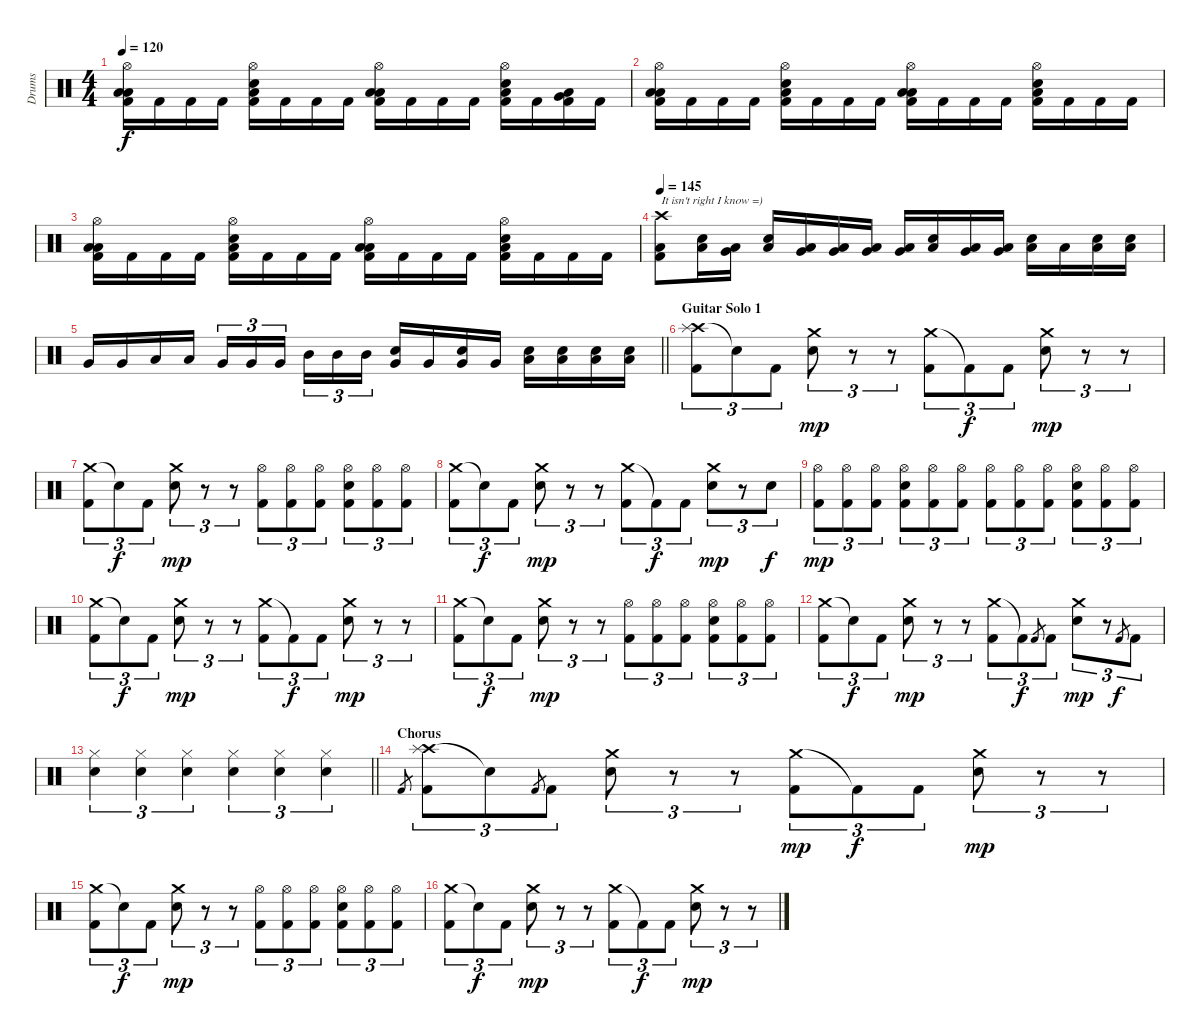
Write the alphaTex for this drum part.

\track ("Drums" "Drums") {instrument percussion}
\staff {score}
\articulation defaults
\ts (4 4)
\tempo 120
\clef neutral
\ks c
("Hi-Hat (open)" "Low Floor Tom (hit)" "Low Tom (hit)" "Kick (hit) 2").16{dy f} "Kick (hit) 2".16 "Kick (hit) 2".16 "Kick (hit) 2".16 ("Hi-Hat (open)" "Snare (hit) 2" "Low Floor Tom (hit)" "Kick (hit) 2").16 "Kick (hit) 2".16 "Kick (hit) 2".16 "Kick (hit) 2".16 ("Hi-Hat (open)" "Low Floor Tom (hit)" "Low Tom (hit)" "Kick (hit) 2").16 "Kick (hit) 2".16 "Kick (hit) 2".16 "Kick (hit) 2".16 ("Hi-Hat (open)" "Snare (hit) 2" "Low Floor Tom (hit)" "Kick (hit) 2").16 "Kick (hit) 2".16 ("Low Floor Tom (hit)" "Very Low Tom (hit)" "Kick (hit) 2").16 "Kick (hit) 2".16 |
("Hi-Hat (open)" "Low Floor Tom (hit)" "Low Tom (hit)" "Kick (hit) 2").16 "Kick (hit) 2".16 "Kick (hit) 2".16 "Kick (hit) 2".16 ("Hi-Hat (open)" "Snare (hit) 2" "Low Floor Tom (hit)" "Kick (hit) 2").16 "Kick (hit) 2".16 "Kick (hit) 2".16 "Kick (hit) 2".16 ("Hi-Hat (open)" "Low Floor Tom (hit)" "Low Tom (hit)" "Kick (hit) 2").16 "Kick (hit) 2".16 "Kick (hit) 2".16 "Kick (hit) 2".16 ("Hi-Hat (open)" "Snare (hit) 2" "Low Floor Tom (hit)" "Kick (hit) 2").16 "Kick (hit) 2".16 "Kick (hit) 2".16 "Kick (hit) 2".16 |
("Hi-Hat (open)" "Low Floor Tom (hit)" "Low Tom (hit)" "Kick (hit) 2").16 "Kick (hit) 2".16 "Kick (hit) 2".16 "Kick (hit) 2".16 ("Hi-Hat (open)" "Snare (hit) 2" "Low Floor Tom (hit)" "Kick (hit) 2").16 "Kick (hit) 2".16 "Kick (hit) 2".16 "Kick (hit) 2".16 ("Hi-Hat (open)" "Low Floor Tom (hit)" "Low Tom (hit)" "Kick (hit) 2").16 "Kick (hit) 2".16 "Kick (hit) 2".16 "Kick (hit) 2".16 ("Hi-Hat (open)" "Snare (hit) 2" "Low Floor Tom (hit)" "Kick (hit) 2").16 "Kick (hit) 2".16 "Kick (hit) 2".16 "Kick (hit) 2".16 |
\tempo 145
("Crash high (hit)" "Low Floor Tom (hit)" "Kick (hit) 2").8{txt "It isn't right I know =)"} ("Snare (hit) 2" "Low Floor Tom (hit)").16 ("Low Floor Tom (hit)" "Very Low Tom (hit)").16 ("Snare (hit) 2" "Low Floor Tom (hit)").16 ("Low Floor Tom (hit)" "Very Low Tom (hit)").16 ("Low Floor Tom (hit)" "Very Low Tom (hit)").16 ("Low Floor Tom (hit)" "Very Low Tom (hit)").16 ("Low Floor Tom (hit)" "Very Low Tom (hit)").16 ("Snare (hit) 2" "Low Floor Tom (hit)").16 ("Low Floor Tom (hit)" "Very Low Tom (hit)").16 ("Low Floor Tom (hit)" "Very Low Tom (hit)").16 ("Snare (hit) 2" "Low Floor Tom (hit)").16 "Low Floor Tom (hit)".16 ("Snare (hit) 2" "Low Floor Tom (hit)").16 ("Snare (hit) 2" "Low Floor Tom (hit)").16 |
\barLineRight lightlight "Very Low Tom (hit)".16 "Very Low Tom (hit)".16 "Low Tom (hit)".16 "Low Tom (hit)".16 "Very Low Tom (hit)".16{tu (3 2)} "Very Low Tom (hit)".16{tu (3 2)} "Very Low Tom (hit)".16{tu (3 2) beam splitsecondary} "Mid Tom (hit)".16{tu (3 2)} "Mid Tom (hit)".16{tu (3 2)} "Mid Tom (hit)".16{tu (3 2)}
("Snare (hit) 2" "Very Low Tom (hit)").16 "Very Low Tom (hit)".16 ("Snare (hit) 2" "Very Low Tom (hit)").16 "Very Low Tom (hit)".16 ("Snare (hit) 2" "Low Tom (hit)").16 ("Snare (hit) 2" "Low Tom (hit)").16 ("Snare (hit) 2" "Low Floor Tom (hit)").16 ("Snare (hit) 2" "Low Floor Tom (hit)").16 |
\section ("" "Guitar Solo 1")
("Crash high (hit)" "Splash (hit)" "Kick (hit) 2").8{tu (3 2)} "Snare (hit)"{t}.8{tu (3 2)} "Kick (hit) 2".8{tu (3 2)} ("Crash medium (hit)" "Snare (hit) 2").8{tu (3 2) dy mp} r.8{tu (3 2)} r.8{tu (3 2)} ("Crash medium (hit)" "Kick (hit) 2").8{tu (3 2)} "Kick (hit) 2"{t}.8{tu (3 2) dy f} "Kick (hit) 2".8{tu (3 2)} ("Crash medium (hit)" "Snare (hit) 2").8{tu (3 2) dy mp} r.8{tu (3 2)} r.8{tu (3 2)} |
("Crash medium (hit)" "Kick (hit) 2").8{tu (3 2)} "Snare (hit)"{t}.8{tu (3 2) dy f} "Kick (hit) 2".8{tu (3 2)} ("Crash medium (hit)" "Snare (hit) 2").8{tu (3 2) dy mp} r.8{tu (3 2)} r.8{tu (3 2)} ("Hi-Hat (open)" "Kick (hit) 2").8{tu (3 2)} ("Hi-Hat (open)" "Kick (hit) 2").8{tu (3 2)} ("Hi-Hat (open)" "Kick (hit) 2").8{tu (3 2)} ("Hi-Hat (open)" "Snare (hit) 2" "Kick (hit) 2").8{tu (3 2)} ("Hi-Hat (open)" "Kick (hit) 2").8{tu (3 2)} ("Hi-Hat (open)" "Kick (hit) 2").8{tu (3 2)} |
("Crash medium (hit)" "Kick (hit) 2").8{tu (3 2)} "Snare (hit)"{t}.8{tu (3 2) dy f} "Kick (hit) 2".8{tu (3 2)} ("Crash medium (hit)" "Snare (hit) 2").8{tu (3 2) dy mp} r.8{tu (3 2)} r.8{tu (3 2)} ("Crash medium (hit)" "Kick (hit) 2").8{tu (3 2)} "Kick (hit) 2"{t}.8{tu (3 2) dy f} "Kick (hit) 2".8{tu (3 2)} ("Crash medium (hit)" "Snare (hit) 2").8{tu (3 2) dy mp} r.8{tu (3 2)} "Snare (hit) 2".8{tu (3 2) dy f} |
("Hi-Hat (open)" "Kick (hit) 2").8{tu (3 2) dy mp} ("Hi-Hat (open)" "Kick (hit) 2").8{tu (3 2)} ("Hi-Hat (open)" "Kick (hit) 2").8{tu (3 2)} ("Hi-Hat (open)" "Snare (hit) 2" "Kick (hit) 2").8{tu (3 2)} ("Hi-Hat (open)" "Kick (hit) 2").8{tu (3 2)} ("Hi-Hat (open)" "Kick (hit) 2").8{tu (3 2)} ("Hi-Hat (open)" "Kick (hit) 2").8{tu (3 2)} ("Hi-Hat (open)" "Kick (hit) 2").8{tu (3 2)} ("Hi-Hat (open)" "Kick (hit) 2").8{tu (3 2)} ("Hi-Hat (open)" "Snare (hit) 2" "Kick (hit) 2").8{tu (3 2)} ("Hi-Hat (open)" "Kick (hit) 2").8{tu (3 2)} ("Hi-Hat (open)" "Kick (hit) 2").8{tu (3 2)} |
("Crash medium (hit)" "Kick (hit) 2").8{tu (3 2)} "Snare (hit)"{t}.8{tu (3 2) dy f} "Kick (hit) 2".8{tu (3 2)} ("Crash medium (hit)" "Snare (hit) 2").8{tu (3 2) dy mp} r.8{tu (3 2)} r.8{tu (3 2)} ("Crash medium (hit)" "Kick (hit) 2").8{tu (3 2)} "Kick (hit) 2"{t}.8{tu (3 2) dy f} "Kick (hit) 2".8{tu (3 2)} ("Crash medium (hit)" "Snare (hit) 2").8{tu (3 2) dy mp} r.8{tu (3 2)} r.8{tu (3 2)} |
("Crash medium (hit)" "Kick (hit) 2").8{tu (3 2)} "Snare (hit)"{t}.8{tu (3 2) dy f} "Kick (hit) 2".8{tu (3 2)} ("Crash medium (hit)" "Snare (hit) 2").8{tu (3 2) dy mp} r.8{tu (3 2)} r.8{tu (3 2)} ("Hi-Hat (open)" "Kick (hit) 2").8{tu (3 2)} ("Hi-Hat (open)" "Kick (hit) 2").8{tu (3 2)} ("Hi-Hat (open)" "Kick (hit) 2").8{tu (3 2)} ("Hi-Hat (open)" "Snare (hit) 2" "Kick (hit) 2").8{tu (3 2)} ("Hi-Hat (open)" "Kick (hit) 2").8{tu (3 2)} ("Hi-Hat (open)" "Kick (hit) 2").8{tu (3 2)} |
("Crash medium (hit)" "Kick (hit) 2").8{tu (3 2)} "Snare (hit)"{t}.8{tu (3 2) dy f} "Kick (hit) 2".8{tu (3 2)} ("Crash medium (hit)" "Snare (hit) 2").8{tu (3 2) dy mp} r.8{tu (3 2)} r.8{tu (3 2)} ("Crash medium (hit)" "Kick (hit) 2").8{tu (3 2)} "Kick (hit) 2"{t}.8{tu (3 2) dy f} "Kick (hit) 2".8{gr} "Kick (hit) 2".8{tu (3 2)} ("Crash medium (hit)" "Snare (hit) 2").8{tu (3 2) dy mp} r.8{tu (3 2)} "Kick (hit) 2".8{gr dy f} "Kick (hit) 2".8{tu (3 2)} |
\barLineRight lightlight
("Hi-Hat (closed)" "Snare (hit) 2").4{tu (3 2)} ("Hi-Hat (closed)" "Snare (hit) 2").4{tu (3 2)} ("Hi-Hat (closed)" "Snare (hit) 2").4{tu (3 2)} ("Hi-Hat (closed)" "Snare (hit) 2").4{tu (3 2)} ("Hi-Hat (closed)" "Snare (hit) 2").4{tu (3 2)} ("Hi-Hat (closed)" "Snare (hit) 2").4{tu (3 2)} |
\section ("" "Chorus")
"Kick (hit) 2".8{gr} ("Crash high (hit)" "Splash (hit)" "Kick (hit) 2").8{tu (3 2)} "Snare (hit)"{t}.8{tu (3 2)} "Kick (hit) 2".8{gr} "Kick (hit) 2".8{tu (3 2)} ("Crash medium (hit)" "Snare (hit) 2").8{tu (3 2)} r.8{tu (3 2)} r.8{tu (3 2)} ("Crash medium (hit)" "Kick (hit) 2").8{tu (3 2) dy mp} "Kick (hit) 2"{t}.8{tu (3 2) dy f} "Kick (hit) 2".8{tu (3 2)} ("Crash medium (hit)" "Snare (hit) 2").8{tu (3 2) dy mp} r.8{tu (3 2)} r.8{tu (3 2)} |
("Crash medium (hit)" "Kick (hit) 2").8{tu (3 2)} "Snare (hit)"{t}.8{tu (3 2) dy f} "Kick (hit) 2".8{tu (3 2)} ("Crash medium (hit)" "Snare (hit) 2").8{tu (3 2) dy mp} r.8{tu (3 2)} r.8{tu (3 2)} ("Hi-Hat (open)" "Kick (hit) 2").8{tu (3 2)} ("Hi-Hat (open)" "Kick (hit) 2").8{tu (3 2)} ("Hi-Hat (open)" "Kick (hit) 2").8{tu (3 2)} ("Hi-Hat (open)" "Snare (hit) 2" "Kick (hit) 2").8{tu (3 2)} ("Hi-Hat (open)" "Kick (hit) 2").8{tu (3 2)} ("Hi-Hat (open)" "Kick (hit) 2").8{tu (3 2)} |
("Crash medium (hit)" "Kick (hit) 2").8{tu (3 2)} "Snare (hit)"{t}.8{tu (3 2) dy f} "Kick (hit) 2".8{tu (3 2)} ("Crash medium (hit)" "Snare (hit) 2").8{tu (3 2) dy mp} r.8{tu (3 2)} r.8{tu (3 2)} ("Crash medium (hit)" "Kick (hit) 2").8{tu (3 2)} "Kick (hit) 2"{t}.8{tu (3 2) dy f} "Kick (hit) 2".8{tu (3 2)} ("Crash medium (hit)" "Snare (hit) 2").8{tu (3 2) dy mp} r.8{tu (3 2)} r.8{tu (3 2)}
